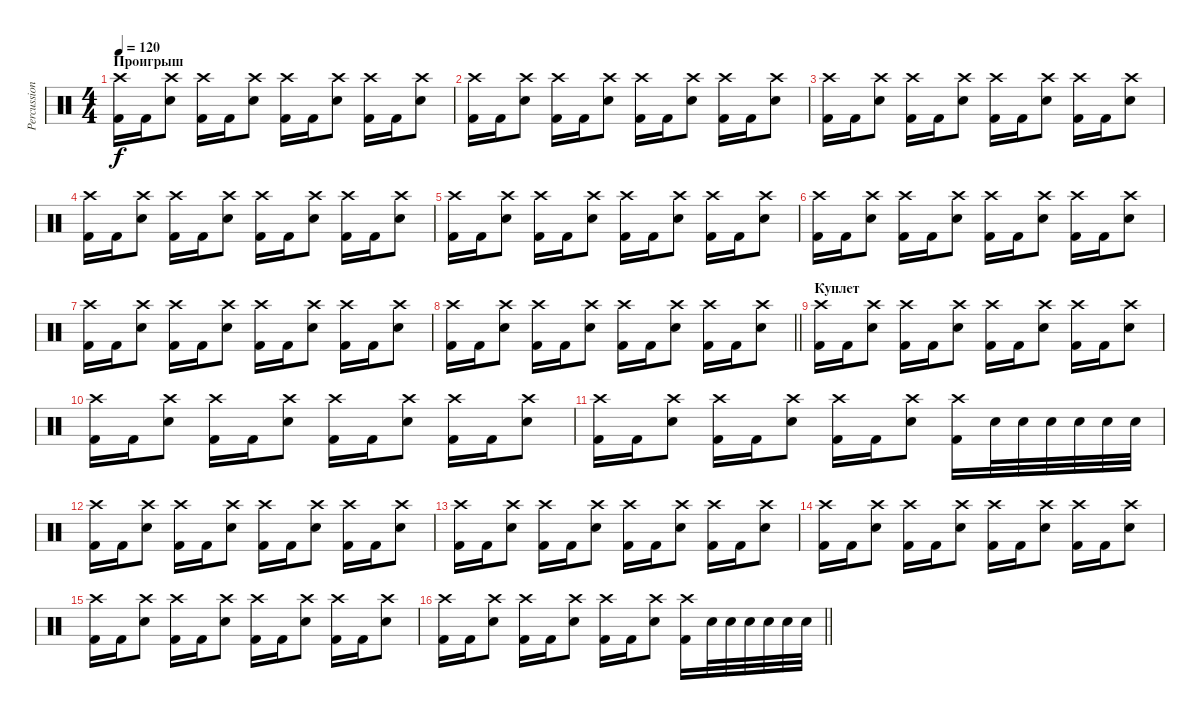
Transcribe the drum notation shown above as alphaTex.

\track ("Percussion" "Percussion") {instrument percussion}
\staff {score}
\articulation defaults
\ts (4 4)
\section ("" "Проигрыш")
\tempo 120
\clef neutral
\ks c
("Crash high (hit)" "Kick (hit) 2").16{dy f} "Kick (hit) 2".16 ("Crash high (hit)" "Electric Snare (hit)").8 ("Crash high (hit)" "Kick (hit) 2").16 "Kick (hit) 2".16 ("Crash high (hit)" "Electric Snare (hit)").8 ("Crash high (hit)" "Kick (hit) 2").16 "Kick (hit) 2".16 ("Crash high (hit)" "Electric Snare (hit)").8 ("Crash high (hit)" "Kick (hit) 2").16 "Kick (hit) 2".16 ("Crash high (hit)" "Electric Snare (hit)").8 |
("Crash high (hit)" "Kick (hit) 2").16 "Kick (hit) 2".16 ("Crash high (hit)" "Electric Snare (hit)").8 ("Crash high (hit)" "Kick (hit) 2").16 "Kick (hit) 2".16 ("Crash high (hit)" "Electric Snare (hit)").8 ("Crash high (hit)" "Kick (hit) 2").16 "Kick (hit) 2".16 ("Crash high (hit)" "Electric Snare (hit)").8 ("Crash high (hit)" "Kick (hit) 2").16 "Kick (hit) 2".16 ("Crash high (hit)" "Electric Snare (hit)").8 |
("Crash high (hit)" "Kick (hit) 2").16 "Kick (hit) 2".16 ("Crash high (hit)" "Electric Snare (hit)").8 ("Crash high (hit)" "Kick (hit) 2").16 "Kick (hit) 2".16 ("Crash high (hit)" "Electric Snare (hit)").8 ("Crash high (hit)" "Kick (hit) 2").16 "Kick (hit) 2".16 ("Crash high (hit)" "Electric Snare (hit)").8 ("Crash high (hit)" "Kick (hit) 2").16 "Kick (hit) 2".16 ("Crash high (hit)" "Electric Snare (hit)").8 |
("Crash high (hit)" "Kick (hit) 2").16 "Kick (hit) 2".16 ("Crash high (hit)" "Electric Snare (hit)").8 ("Crash high (hit)" "Kick (hit) 2").16 "Kick (hit) 2".16 ("Crash high (hit)" "Electric Snare (hit)").8 ("Crash high (hit)" "Kick (hit) 2").16 "Kick (hit) 2".16 ("Crash high (hit)" "Electric Snare (hit)").8 ("Crash high (hit)" "Kick (hit) 2").16 "Kick (hit) 2".16 ("Crash high (hit)" "Electric Snare (hit)").8 |
("Crash high (hit)" "Kick (hit) 2").16 "Kick (hit) 2".16 ("Crash high (hit)" "Electric Snare (hit)").8 ("Crash high (hit)" "Kick (hit) 2").16 "Kick (hit) 2".16 ("Crash high (hit)" "Electric Snare (hit)").8 ("Crash high (hit)" "Kick (hit) 2").16 "Kick (hit) 2".16 ("Crash high (hit)" "Electric Snare (hit)").8 ("Crash high (hit)" "Kick (hit) 2").16 "Kick (hit) 2".16 ("Crash high (hit)" "Electric Snare (hit)").8 |
("Crash high (hit)" "Kick (hit) 2").16 "Kick (hit) 2".16 ("Crash high (hit)" "Electric Snare (hit)").8 ("Crash high (hit)" "Kick (hit) 2").16 "Kick (hit) 2".16 ("Crash high (hit)" "Electric Snare (hit)").8 ("Crash high (hit)" "Kick (hit) 2").16 "Kick (hit) 2".16 ("Crash high (hit)" "Electric Snare (hit)").8 ("Crash high (hit)" "Kick (hit) 2").16 "Kick (hit) 2".16 ("Crash high (hit)" "Electric Snare (hit)").8 |
("Crash high (hit)" "Kick (hit) 2").16 "Kick (hit) 2".16 ("Crash high (hit)" "Electric Snare (hit)").8 ("Crash high (hit)" "Kick (hit) 2").16 "Kick (hit) 2".16 ("Crash high (hit)" "Electric Snare (hit)").8 ("Crash high (hit)" "Kick (hit) 2").16 "Kick (hit) 2".16 ("Crash high (hit)" "Electric Snare (hit)").8 ("Crash high (hit)" "Kick (hit) 2").16 "Kick (hit) 2".16 ("Crash high (hit)" "Electric Snare (hit)").8 |
\barLineRight lightlight
("Crash high (hit)" "Kick (hit) 2").16 "Kick (hit) 2".16 ("Crash high (hit)" "Electric Snare (hit)").8 ("Crash high (hit)" "Kick (hit) 2").16 "Kick (hit) 2".16 ("Crash high (hit)" "Electric Snare (hit)").8 ("Crash high (hit)" "Kick (hit) 2").16 "Kick (hit) 2".16 ("Crash high (hit)" "Electric Snare (hit)").8 ("Crash high (hit)" "Kick (hit) 2").16 "Kick (hit) 2".16 ("Crash high (hit)" "Electric Snare (hit)").8 |
\section ("" "Куплет")
("Crash high (hit)" "Kick (hit) 2").16 "Kick (hit) 2".16 ("Crash high (hit)" "Electric Snare (hit)").8 ("Crash high (hit)" "Kick (hit) 2").16 "Kick (hit) 2".16 ("Crash high (hit)" "Electric Snare (hit)").8 ("Crash high (hit)" "Kick (hit) 2").16 "Kick (hit) 2".16 ("Crash high (hit)" "Electric Snare (hit)").8 ("Crash high (hit)" "Kick (hit) 2").16 "Kick (hit) 2".16 ("Crash high (hit)" "Electric Snare (hit)").8 |
("Crash high (hit)" "Kick (hit) 2").16 "Kick (hit) 2".16 ("Crash high (hit)" "Electric Snare (hit)").8 ("Crash high (hit)" "Kick (hit) 2").16 "Kick (hit) 2".16 ("Crash high (hit)" "Electric Snare (hit)").8 ("Crash high (hit)" "Kick (hit) 2").16 "Kick (hit) 2".16 ("Crash high (hit)" "Electric Snare (hit)").8 ("Crash high (hit)" "Kick (hit) 2").16 "Kick (hit) 2".16 ("Crash high (hit)" "Electric Snare (hit)").8 |
("Crash high (hit)" "Kick (hit) 2").16 "Kick (hit) 2".16 ("Crash high (hit)" "Electric Snare (hit)").8 ("Crash high (hit)" "Kick (hit) 2").16 "Kick (hit) 2".16 ("Crash high (hit)" "Electric Snare (hit)").8 ("Crash high (hit)" "Kick (hit) 2").16 "Kick (hit) 2".16 ("Crash high (hit)" "Electric Snare (hit)").8 ("Crash high (hit)" "Kick (hit) 2").16 "Electric Snare (hit)".32 "Electric Snare (hit)".32 "Electric Snare (hit)".32 "Electric Snare (hit)".32 "Electric Snare (hit)".32 "Electric Snare (hit)".32 |
("Crash high (hit)" "Kick (hit) 2").16 "Kick (hit) 2".16 ("Crash high (hit)" "Electric Snare (hit)").8 ("Crash high (hit)" "Kick (hit) 2").16 "Kick (hit) 2".16 ("Crash high (hit)" "Electric Snare (hit)").8 ("Crash high (hit)" "Kick (hit) 2").16 "Kick (hit) 2".16 ("Crash high (hit)" "Electric Snare (hit)").8 ("Crash high (hit)" "Kick (hit) 2").16 "Kick (hit) 2".16 ("Crash high (hit)" "Electric Snare (hit)").8 |
("Crash high (hit)" "Kick (hit) 2").16 "Kick (hit) 2".16 ("Crash high (hit)" "Electric Snare (hit)").8 ("Crash high (hit)" "Kick (hit) 2").16 "Kick (hit) 2".16 ("Crash high (hit)" "Electric Snare (hit)").8 ("Crash high (hit)" "Kick (hit) 2").16 "Kick (hit) 2".16 ("Crash high (hit)" "Electric Snare (hit)").8 ("Crash high (hit)" "Kick (hit) 2").16 "Kick (hit) 2".16 ("Crash high (hit)" "Electric Snare (hit)").8 |
("Crash high (hit)" "Kick (hit) 2").16 "Kick (hit) 2".16 ("Crash high (hit)" "Electric Snare (hit)").8 ("Crash high (hit)" "Kick (hit) 2").16 "Kick (hit) 2".16 ("Crash high (hit)" "Electric Snare (hit)").8 ("Crash high (hit)" "Kick (hit) 2").16 "Kick (hit) 2".16 ("Crash high (hit)" "Electric Snare (hit)").8 ("Crash high (hit)" "Kick (hit) 2").16 "Kick (hit) 2".16 ("Crash high (hit)" "Electric Snare (hit)").8 |
("Crash high (hit)" "Kick (hit) 2").16 "Kick (hit) 2".16 ("Crash high (hit)" "Electric Snare (hit)").8 ("Crash high (hit)" "Kick (hit) 2").16 "Kick (hit) 2".16 ("Crash high (hit)" "Electric Snare (hit)").8 ("Crash high (hit)" "Kick (hit) 2").16 "Kick (hit) 2".16 ("Crash high (hit)" "Electric Snare (hit)").8 ("Crash high (hit)" "Kick (hit) 2").16 "Kick (hit) 2".16 ("Crash high (hit)" "Electric Snare (hit)").8 |
\barLineRight lightlight
("Crash high (hit)" "Kick (hit) 2").16 "Kick (hit) 2".16 ("Crash high (hit)" "Electric Snare (hit)").8 ("Crash high (hit)" "Kick (hit) 2").16 "Kick (hit) 2".16 ("Crash high (hit)" "Electric Snare (hit)").8 ("Crash high (hit)" "Kick (hit) 2").16 "Kick (hit) 2".16 ("Crash high (hit)" "Electric Snare (hit)").8 ("Crash high (hit)" "Kick (hit) 2").16 "Electric Snare (hit)".32 "Electric Snare (hit)".32 "Electric Snare (hit)".32 "Electric Snare (hit)".32 "Electric Snare (hit)".32 "Electric Snare (hit)".32
